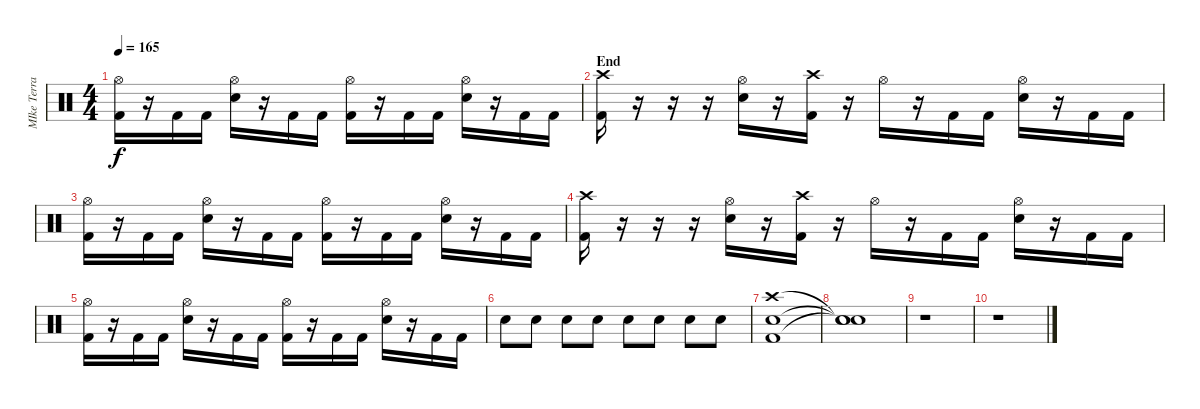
\track ("MIke Terrana - Batteria" "MIke Terra") {instrument percussion}
\staff {score}
\articulation defaults
\ts (4 4)
\tempo 165
\clef neutral
\ks c
("Kick (hit) 2" "Hi-Hat (open)").16{dy f} r.16 "Kick (hit) 2".16 "Kick (hit) 2".16 ("Electric Snare (hit)" "Hi-Hat (open)").16 r.16 "Kick (hit) 2".16 "Kick (hit) 2".16 ("Kick (hit) 2" "Hi-Hat (open)").16 r.16 "Kick (hit) 2".16 "Kick (hit) 2".16 ("Electric Snare (hit)" "Hi-Hat (open)").16 r.16 "Kick (hit) 2".16 "Kick (hit) 2".16 |
\section ("" "End")
("Kick (hit) 2" "Crash high (hit)").16 r.16 r.16 r.16 ("Electric Snare (hit)" "Hi-Hat (open)").16 r.16 ("Kick (hit) 2" "Crash high (hit)").16 r.16 "Hi-Hat (open)".16 r.16 "Kick (hit) 2".16 "Kick (hit) 2".16 ("Electric Snare (hit)" "Hi-Hat (open)").16 r.16 "Kick (hit) 2".16 "Kick (hit) 2".16 |
("Kick (hit) 2" "Hi-Hat (open)").16 r.16 "Kick (hit) 2".16 "Kick (hit) 2".16 ("Electric Snare (hit)" "Hi-Hat (open)").16 r.16 "Kick (hit) 2".16 "Kick (hit) 2".16 ("Kick (hit) 2" "Hi-Hat (open)").16 r.16 "Kick (hit) 2".16 "Kick (hit) 2".16 ("Electric Snare (hit)" "Hi-Hat (open)").16 r.16 "Kick (hit) 2".16 "Kick (hit) 2".16 |
("Kick (hit) 2" "Crash high (hit)").16 r.16 r.16 r.16 ("Electric Snare (hit)" "Hi-Hat (open)").16 r.16 ("Kick (hit) 2" "Crash high (hit)").16 r.16 "Hi-Hat (open)".16 r.16 "Kick (hit) 2".16 "Kick (hit) 2".16 ("Electric Snare (hit)" "Hi-Hat (open)").16 r.16 "Kick (hit) 2".16 "Kick (hit) 2".16 |
("Kick (hit) 2" "Hi-Hat (open)").16 r.16 "Kick (hit) 2".16 "Kick (hit) 2".16 ("Electric Snare (hit)" "Hi-Hat (open)").16 r.16 "Kick (hit) 2".16 "Kick (hit) 2".16 ("Kick (hit) 2" "Hi-Hat (open)").16 r.16 "Kick (hit) 2".16 "Kick (hit) 2".16 ("Electric Snare (hit)" "Hi-Hat (open)").16 r.16 "Kick (hit) 2".16 "Kick (hit) 2".16 |
"Electric Snare (hit)".8 "Electric Snare (hit)".8 "Electric Snare (hit)".8 "Electric Snare (hit)".8 "Electric Snare (hit)".8 "Electric Snare (hit)".8 "Electric Snare (hit)".8 "Electric Snare (hit)".8 |
("Kick (hit) 2" "Electric Snare (hit)" "Crash high (hit)").1 |
\section ("" "")
("Snare (hit)"{t} "Snare (hit)"{t} "Snare (hit)"{t}).1 |
r.1 |
r.1
